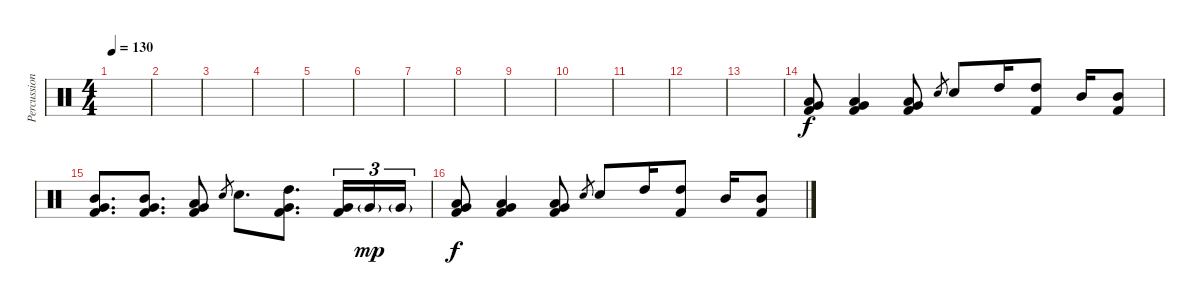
\track ("Percussion" "Percussion") {instrument percussion}
\staff {score}
\articulation defaults
\ts (4 4)
\tempo 130
\clef neutral
\ks c
|
|
|
|
|
|
|
|
|
|
|
|
|
("Low Tom (hit)" "Very Low Tom (hit)" "Kick (hit) 2").8{volume 16} ("Low Tom (hit)" "Very Low Tom (hit)" "Kick (hit) 2").4 ("Low Tom (hit)" "Very Low Tom (hit)" "Kick (hit) 2").8 "Electric Snare (hit)".8{gr} "Electric Snare (hit)".8 "High Tom (hit)".16 ("High Tom (hit)" "Kick (hit) 2").8 "Mid Tom (hit)".16 ("Mid Tom (hit)" "Kick (hit) 2").8 |
("Mid Tom (hit)" "Very Low Tom (hit)" "Kick (hit) 2").8{d} ("Mid Tom (hit)" "Very Low Tom (hit)" "Kick (hit) 2").8{d} ("Low Tom (hit)" "Very Low Tom (hit)" "Kick (hit) 2").8 "Electric Snare (hit)".8{gr} "Electric Snare (hit)".8{d} ("High Tom (hit)" "Very Low Tom (hit)" "Kick (hit) 2").8{d} ("Very Low Tom (hit)" "Kick (hit) 2").16{tu (3 2)} "Very Low Tom (hit)"{g}.16{tu (3 2) dy mp} "Very Low Tom (hit)"{g}.16{tu (3 2)} |
("Low Tom (hit)" "Very Low Tom (hit)" "Kick (hit) 2").8{dy f} ("Low Tom (hit)" "Very Low Tom (hit)" "Kick (hit) 2").4 ("Low Tom (hit)" "Very Low Tom (hit)" "Kick (hit) 2").8 "Electric Snare (hit)".8{gr} "Electric Snare (hit)".8 "High Tom (hit)".16 ("High Tom (hit)" "Kick (hit) 2").8 "Mid Tom (hit)".16 ("Mid Tom (hit)" "Kick (hit) 2").8
